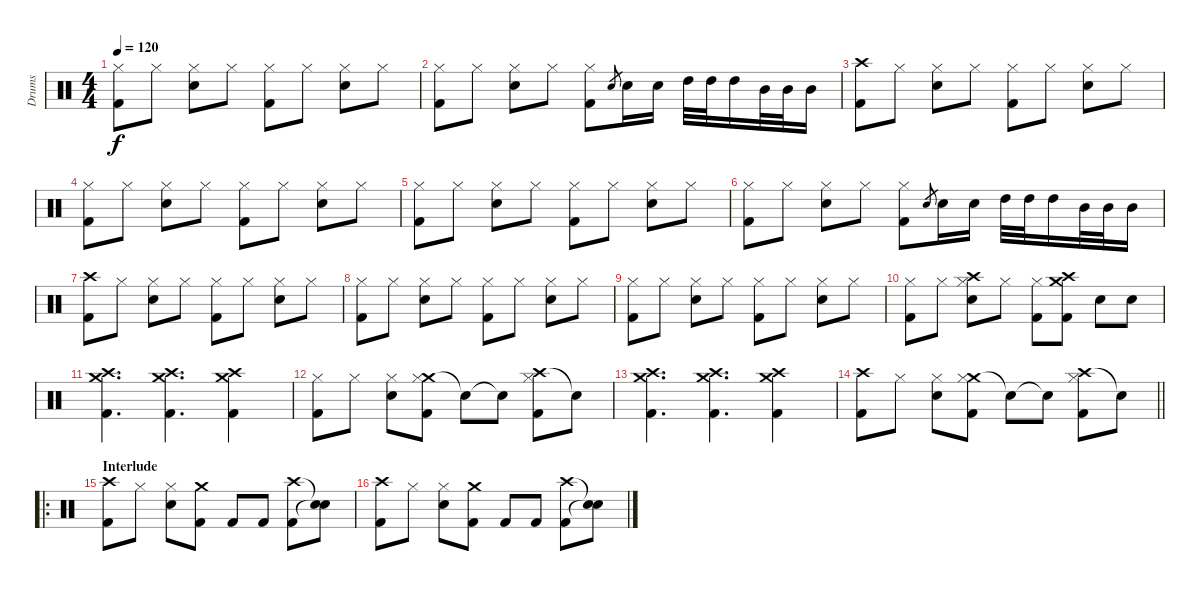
\track ("Drums" "Drums") {instrument percussion}
\staff {score}
\articulation defaults
\ts (4 4)
\tempo 120
\clef neutral
\ks c
("Hi-Hat (closed)" "Kick (hit) 2").8{dy f} "Hi-Hat (closed)".8 ("Hi-Hat (closed)" "Snare (hit) 2").8 "Hi-Hat (closed)".8 ("Hi-Hat (closed)" "Kick (hit) 2").8 "Hi-Hat (closed)".8 ("Hi-Hat (closed)" "Snare (hit) 2").8 "Hi-Hat (closed)".8 |
("Hi-Hat (closed)" "Kick (hit) 2").8 "Hi-Hat (closed)".8 ("Hi-Hat (closed)" "Snare (hit) 2").8 "Hi-Hat (closed)".8 ("Hi-Hat (closed)" "Kick (hit) 2").8 "Snare (hit) 2".8{gr} "Snare (hit) 2".16 "Snare (hit) 2".16 "High Tom (hit)".32 "High Tom (hit)".32 "High Tom (hit)".16 "Mid Tom (hit)".32 "Mid Tom (hit)".32 "Mid Tom (hit)".16 |
("Crash high (hit)" "Kick (hit) 2").8 "Hi-Hat (closed)".8 ("Hi-Hat (closed)" "Snare (hit) 2").8 "Hi-Hat (closed)".8 ("Hi-Hat (closed)" "Kick (hit) 2").8 "Hi-Hat (closed)".8 ("Hi-Hat (closed)" "Snare (hit) 2").8 "Hi-Hat (closed)".8 |
("Hi-Hat (closed)" "Kick (hit) 2").8 "Hi-Hat (closed)".8 ("Hi-Hat (closed)" "Snare (hit) 2").8 "Hi-Hat (closed)".8 ("Hi-Hat (closed)" "Kick (hit) 2").8 "Hi-Hat (closed)".8 ("Hi-Hat (closed)" "Snare (hit) 2").8 "Hi-Hat (closed)".8 |
("Hi-Hat (closed)" "Kick (hit) 2").8 "Hi-Hat (closed)".8 ("Hi-Hat (closed)" "Snare (hit) 2").8 "Hi-Hat (closed)".8 ("Hi-Hat (closed)" "Kick (hit) 2").8 "Hi-Hat (closed)".8 ("Hi-Hat (closed)" "Snare (hit) 2").8 "Hi-Hat (closed)".8 |
("Hi-Hat (closed)" "Kick (hit) 2").8 "Hi-Hat (closed)".8 ("Hi-Hat (closed)" "Snare (hit) 2").8 "Hi-Hat (closed)".8 ("Hi-Hat (closed)" "Kick (hit) 2").8 "Snare (hit) 2".8{gr} "Snare (hit) 2".16 "Snare (hit) 2".16 "High Tom (hit)".32 "High Tom (hit)".32 "High Tom (hit)".16 "Mid Tom (hit)".32 "Mid Tom (hit)".32 "Mid Tom (hit)".16 |
("Crash high (hit)" "Kick (hit) 2").8 "Hi-Hat (closed)".8 ("Hi-Hat (closed)" "Snare (hit) 2").8 "Hi-Hat (closed)".8 ("Hi-Hat (closed)" "Kick (hit) 2").8 "Hi-Hat (closed)".8 ("Hi-Hat (closed)" "Snare (hit) 2").8 "Hi-Hat (closed)".8 |
("Hi-Hat (closed)" "Kick (hit) 2").8 "Hi-Hat (closed)".8 ("Hi-Hat (closed)" "Snare (hit) 2").8 "Hi-Hat (closed)".8 ("Hi-Hat (closed)" "Kick (hit) 2").8 "Hi-Hat (closed)".8 ("Hi-Hat (closed)" "Snare (hit) 2").8 "Hi-Hat (closed)".8 |
("Hi-Hat (closed)" "Kick (hit) 2").8 "Hi-Hat (closed)".8 ("Hi-Hat (closed)" "Snare (hit) 2").8 "Hi-Hat (closed)".8 ("Hi-Hat (closed)" "Kick (hit) 2").8 "Hi-Hat (closed)".8 ("Hi-Hat (closed)" "Snare (hit) 2").8 "Hi-Hat (closed)".8 |
("Hi-Hat (closed)" "Kick (hit) 2").8 "Hi-Hat (closed)".8 ("Crash high (hit)" "Hi-Hat (closed)" "Snare (hit) 2").8 "Hi-Hat (closed)".8 ("Hi-Hat (closed)" "Kick (hit) 2").8 ("Crash high (hit)" "Crash medium (hit)" "Kick (hit) 2").8 "Electric Snare (hit)".8 "Electric Snare (hit)".8 |
("Crash medium (hit)" "Crash high (hit)" "Kick (hit) 2").4{d} ("Crash medium (hit)" "Crash high (hit)" "Kick (hit) 2").4{d} ("Crash medium (hit)" "Crash high (hit)" "Kick (hit) 2").4 |
("Hi-Hat (closed)" "Kick (hit) 2").8 "Hi-Hat (closed)".8 ("Hi-Hat (closed)" "Electric Snare (hit)").8 ("Crash medium (hit)" "Hi-Hat (closed)" "Kick (hit) 2").8 "Snare (hit)"{t}.8 "Snare (hit)"{t}.8 ("Crash high (hit)" "Hi-Hat (closed)" "Kick (hit) 2").8 "Snare (hit)"{t}.8 |
("Crash medium (hit)" "Crash high (hit)" "Kick (hit) 2").4{d} ("Crash medium (hit)" "Crash high (hit)" "Kick (hit) 2").4{d} ("Crash medium (hit)" "Crash high (hit)" "Kick (hit) 2").4 |
\barLineRight lightlight
("Crash high (hit)" "Kick (hit) 2").8 "Hi-Hat (closed)".8 ("Hi-Hat (closed)" "Electric Snare (hit)").8 ("Crash medium (hit)" "Hi-Hat (closed)" "Kick (hit) 2").8 "Snare (hit)"{t}.8 "Snare (hit)"{t}.8 ("Crash high (hit)" "Hi-Hat (closed)" "Kick (hit) 2").8 "Snare (hit)"{t}.8 |
\ro
\section ("" "Interlude")
("Crash high (hit)" "Kick (hit) 2").8 "Hi-Hat (closed)".8 ("Hi-Hat (closed)" "Snare (hit) 2").8 ("Crash medium (hit)" "Kick (hit) 2").8 "Kick (hit) 2".8 "Kick (hit) 2".8 ("Crash high (hit)" "Kick (hit) 2").8 ("Snare (hit)"{t} "Snare (hit)"{t}).8 |
("Crash high (hit)" "Kick (hit) 2").8 "Hi-Hat (closed)".8 ("Hi-Hat (closed)" "Snare (hit) 2").8 ("Crash medium (hit)" "Kick (hit) 2").8 "Kick (hit) 2".8 "Kick (hit) 2".8 ("Crash high (hit)" "Kick (hit) 2").8 ("Snare (hit)"{t} "Snare (hit)"{t}).8
